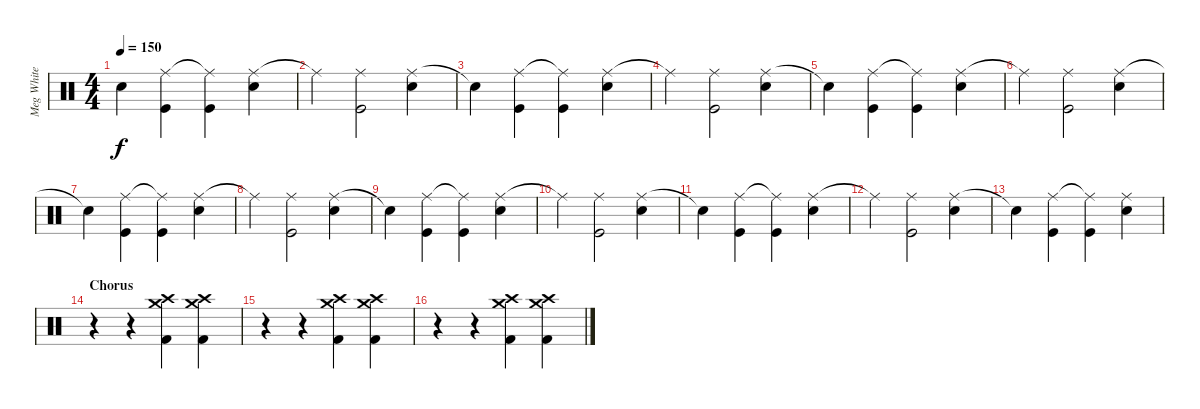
\track ("Meg White" "Meg White") {instrument percussion}
\staff {score}
\articulation defaults
\ts (4 4)
\tempo 150
\clef neutral
\ks c "Snare (hit)"{t}.4{dy f}
("Ride (middle)" "Kick (hit)").4 ("Ride (middle)"{t} "Kick (hit)").4 ("Ride (middle)" "Electric Snare (hit)").4 |
"Ride (middle)"{t}.4 ("Ride (middle)" "Kick (hit)").2 ("Ride (middle)" "Electric Snare (hit)").4 |
"Snare (hit)"{t}.4 ("Ride (middle)" "Kick (hit)").4 ("Ride (middle)"{t} "Kick (hit)").4 ("Ride (middle)" "Electric Snare (hit)").4 |
"Ride (middle)"{t}.4 ("Ride (middle)" "Kick (hit)").2 ("Ride (middle)" "Electric Snare (hit)").4 |
"Snare (hit)"{t}.4 ("Ride (middle)" "Kick (hit)").4 ("Ride (middle)"{t} "Kick (hit)").4 ("Ride (middle)" "Electric Snare (hit)").4 |
"Ride (middle)"{t}.4 ("Ride (middle)" "Kick (hit)").2 ("Ride (middle)" "Electric Snare (hit)").4 |
"Snare (hit)"{t}.4 ("Ride (middle)" "Kick (hit)").4 ("Ride (middle)"{t} "Kick (hit)").4 ("Ride (middle)" "Electric Snare (hit)").4 |
"Ride (middle)"{t}.4 ("Ride (middle)" "Kick (hit)").2 ("Ride (middle)" "Electric Snare (hit)").4 |
"Snare (hit)"{t}.4 ("Ride (middle)" "Kick (hit)").4 ("Ride (middle)"{t} "Kick (hit)").4 ("Ride (middle)" "Electric Snare (hit)").4 |
"Ride (middle)"{t}.4 ("Ride (middle)" "Kick (hit)").2 ("Ride (middle)" "Electric Snare (hit)").4 |
"Snare (hit)"{t}.4 ("Ride (middle)" "Kick (hit)").4 ("Ride (middle)"{t} "Kick (hit)").4 ("Ride (middle)" "Electric Snare (hit)").4 |
"Ride (middle)"{t}.4 ("Ride (middle)" "Kick (hit)").2 ("Ride (middle)" "Electric Snare (hit)").4 |
"Snare (hit)"{t}.4 ("Ride (middle)" "Kick (hit)").4 ("Ride (middle)"{t} "Kick (hit)").4 ("Ride (middle)" "Electric Snare (hit)").4 |
\section ("" "Chorus")
r.4 r.4 ("Crash high (hit)" "Crash medium (hit)" "Kick (hit) 2").4 ("Crash high (hit)" "Crash medium (hit)" "Kick (hit) 2").4 |
r.4 r.4 ("Crash high (hit)" "Crash medium (hit)" "Kick (hit) 2").4 ("Crash high (hit)" "Crash medium (hit)" "Kick (hit) 2").4 |
r.4 r.4 ("Crash high (hit)" "Crash medium (hit)" "Kick (hit) 2").4 ("Crash high (hit)" "Crash medium (hit)" "Kick (hit) 2").4
